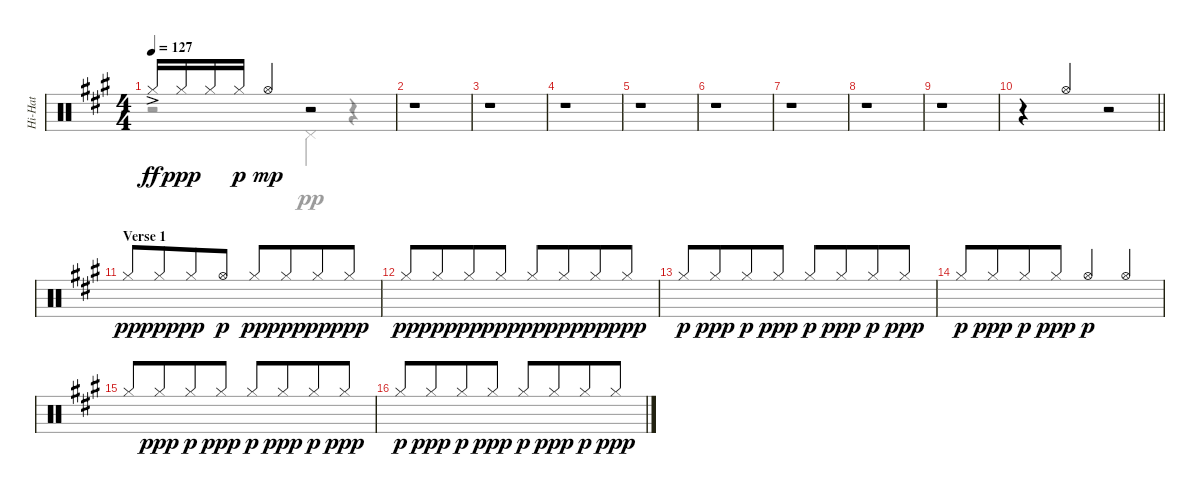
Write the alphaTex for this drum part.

\track ("Hi-Hat" "Hi-Hat") {instrument percussion}
\staff {score}
\articulation defaults
\voice
\ts (4 4)
\tempo 127
\clef neutral
\ks a "Hi-Hat (closed)"{ac}.16{dy ff beam Up} "Hi-Hat (closed)".16{dy ppp beam Up} "Hi-Hat (closed)".16{beam Up} "Hi-Hat (closed)".16{dy p beam Up} "Hi-Hat (open)".4{dy mp beam Up}
r.2 |
r.1 |
r.1 |
r.1 |
r.1 |
r.1 |
r.1 |
r.1 |
r.1 |
\barLineRight lightlight
r.4 "Hi-Hat (open)".4{beam Up} r.2 |
\section ("" "Verse 1")
"Hi-Hat (closed)".8{dy pp beam Up} "Hi-Hat (closed)".8{dy ppp beam Up beam merge} "Hi-Hat (closed)".8{dy pp beam Up} "Hi-Hat (open)".8{dy p beam Up} "Hi-Hat (closed)".8{dy pp beam Up} "Hi-Hat (closed)".8{dy ppp beam Up beam merge} "Hi-Hat (closed)".8{dy pp beam Up} "Hi-Hat (closed)".8{dy ppp beam Up} |
"Hi-Hat (closed)".8{dy pp beam Up} "Hi-Hat (closed)".8{dy ppp beam Up beam merge} "Hi-Hat (closed)".8{dy pp beam Up} "Hi-Hat (closed)".8{dy ppp beam Up} "Hi-Hat (closed)".8{dy pp beam Up} "Hi-Hat (closed)".8{dy ppp beam Up beam merge} "Hi-Hat (closed)".8{dy pp beam Up} "Hi-Hat (closed)".8{dy ppp beam Up} |
"Hi-Hat (closed)".8{dy p beam Up} "Hi-Hat (closed)".8{dy ppp beam Up beam merge} "Hi-Hat (closed)".8{dy p beam Up} "Hi-Hat (closed)".8{dy ppp beam Up} "Hi-Hat (closed)".8{dy p beam Up} "Hi-Hat (closed)".8{dy ppp beam Up beam merge} "Hi-Hat (closed)".8{dy p beam Up} "Hi-Hat (closed)".8{dy ppp beam Up} |
"Hi-Hat (closed)".8{dy p beam Up} "Hi-Hat (closed)".8{dy ppp beam Up beam merge} "Hi-Hat (closed)".8{dy p beam Up} "Hi-Hat (closed)".8{dy ppp beam Up} "Hi-Hat (open)".4{dy p beam Up} "Hi-Hat (open)".4{beam Up} |
"Hi-Hat (closed)".8{beam Up} "Hi-Hat (closed)".8{dy ppp beam Up beam merge} "Hi-Hat (closed)".8{dy p beam Up} "Hi-Hat (closed)".8{dy ppp beam Up} "Hi-Hat (closed)".8{dy p beam Up} "Hi-Hat (closed)".8{dy ppp beam Up beam merge} "Hi-Hat (closed)".8{dy p beam Up} "Hi-Hat (closed)".8{dy ppp beam Up} |
"Hi-Hat (closed)".8{dy p beam Up} "Hi-Hat (closed)".8{dy ppp beam Up beam merge} "Hi-Hat (closed)".8{dy p beam Up} "Hi-Hat (closed)".8{dy ppp beam Up} "Hi-Hat (closed)".8{dy p beam Up} "Hi-Hat (closed)".8{dy ppp beam Up beam merge} "Hi-Hat (closed)".8{dy p beam Up} "Hi-Hat (closed)".8{dy ppp beam Up}
\voice
\clef neutral
\ottava regular
\simile none
\ks a
r.2{dy pp} "Pedal Hi-Hat (hit)".4 r.4 |
|
|
|
|
|
|
|
|
\barLineRight lightlight
|
|
|
|
|
|
